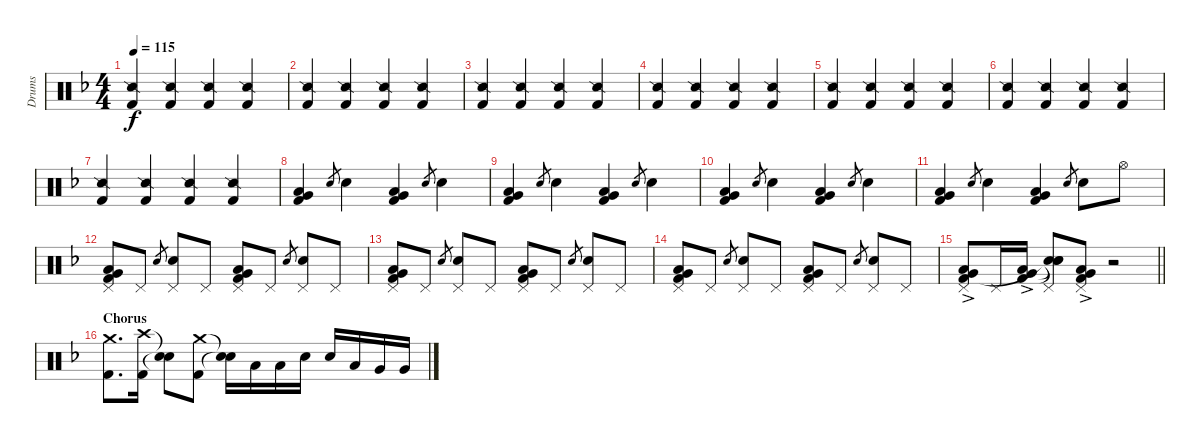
\track ("Drums" "Drums") {instrument percussion}
\staff {score}
\articulation defaults
\ts (4 4)
\tempo 115
\clef neutral
\ks dminor
("Snare (side stick) 2" "Kick (hit) 2").4{dy f} ("Snare (side stick) 2" "Kick (hit) 2").4 ("Snare (side stick) 2" "Kick (hit) 2").4 ("Snare (side stick) 2" "Kick (hit) 2").4 |
("Snare (side stick) 2" "Kick (hit) 2").4 ("Snare (side stick) 2" "Kick (hit) 2").4 ("Snare (side stick) 2" "Kick (hit) 2").4 ("Snare (side stick) 2" "Kick (hit) 2").4 |
("Snare (side stick) 2" "Kick (hit) 2").4 ("Snare (side stick) 2" "Kick (hit) 2").4 ("Snare (side stick) 2" "Kick (hit) 2").4 ("Snare (side stick) 2" "Kick (hit) 2").4 |
("Snare (side stick) 2" "Kick (hit) 2").4 ("Snare (side stick) 2" "Kick (hit) 2").4 ("Snare (side stick) 2" "Kick (hit) 2").4 ("Snare (side stick) 2" "Kick (hit) 2").4 |
("Snare (side stick) 2" "Kick (hit) 2").4 ("Snare (side stick) 2" "Kick (hit) 2").4 ("Snare (side stick) 2" "Kick (hit) 2").4 ("Snare (side stick) 2" "Kick (hit) 2").4 |
("Snare (side stick) 2" "Kick (hit) 2").4 ("Snare (side stick) 2" "Kick (hit) 2").4 ("Snare (side stick) 2" "Kick (hit) 2").4 ("Snare (side stick) 2" "Kick (hit) 2").4 |
("Snare (side stick) 2" "Kick (hit) 2").4 ("Snare (side stick) 2" "Kick (hit) 2").4 ("Snare (side stick) 2" "Kick (hit) 2").4 ("Snare (side stick) 2" "Kick (hit) 2").4 |
("Low Tom (hit)" "Very Low Tom (hit)" "Kick (hit) 2").4 "Electric Snare (hit)".8{gr} "Electric Snare (hit)".4 ("Low Tom (hit)" "Very Low Tom (hit)" "Kick (hit) 2").4 "Electric Snare (hit)".8{gr} "Electric Snare (hit)".4 |
("Low Tom (hit)" "Very Low Tom (hit)" "Kick (hit) 2").4 "Electric Snare (hit)".8{gr} "Electric Snare (hit)".4 ("Low Tom (hit)" "Very Low Tom (hit)" "Kick (hit) 2").4 "Electric Snare (hit)".8{gr} "Electric Snare (hit)".4 |
("Low Tom (hit)" "Very Low Tom (hit)" "Kick (hit) 2").4 "Electric Snare (hit)".8{gr} "Electric Snare (hit)".4 ("Low Tom (hit)" "Very Low Tom (hit)" "Kick (hit) 2").4 "Electric Snare (hit)".8{gr} "Electric Snare (hit)".4 |
("Low Tom (hit)" "Very Low Tom (hit)" "Kick (hit) 2").4 "Electric Snare (hit)".8{gr} "Electric Snare (hit)".4 ("Low Tom (hit)" "Very Low Tom (hit)" "Kick (hit) 2").4 "Electric Snare (hit)".8{gr} "Electric Snare (hit)".8 "Hi-Hat (open)".8 |
("Pedal Hi-Hat (hit)" "Low Tom (hit)" "Very Low Tom (hit)" "Kick (hit) 2").8 "Pedal Hi-Hat (hit)".8 "Electric Snare (hit)".8{gr} ("Pedal Hi-Hat (hit)" "Electric Snare (hit)").8 "Pedal Hi-Hat (hit)".8 ("Pedal Hi-Hat (hit)" "Low Tom (hit)" "Very Low Tom (hit)" "Kick (hit) 2").8 "Pedal Hi-Hat (hit)".8 "Electric Snare (hit)".8{gr} ("Pedal Hi-Hat (hit)" "Electric Snare (hit)").8 "Pedal Hi-Hat (hit)".8 |
("Pedal Hi-Hat (hit)" "Low Tom (hit)" "Very Low Tom (hit)" "Kick (hit) 2").8 "Pedal Hi-Hat (hit)".8 "Electric Snare (hit)".8{gr} ("Pedal Hi-Hat (hit)" "Electric Snare (hit)").8 "Pedal Hi-Hat (hit)".8 ("Pedal Hi-Hat (hit)" "Low Tom (hit)" "Very Low Tom (hit)" "Kick (hit) 2").8 "Pedal Hi-Hat (hit)".8 "Electric Snare (hit)".8{gr} ("Pedal Hi-Hat (hit)" "Electric Snare (hit)").8 "Pedal Hi-Hat (hit)".8 |
("Pedal Hi-Hat (hit)" "Low Tom (hit)" "Very Low Tom (hit)" "Kick (hit) 2").8 "Pedal Hi-Hat (hit)".8 "Electric Snare (hit)".8{gr} ("Pedal Hi-Hat (hit)" "Electric Snare (hit)").8 "Pedal Hi-Hat (hit)".8 ("Pedal Hi-Hat (hit)" "Low Tom (hit)" "Very Low Tom (hit)" "Kick (hit) 2").8 "Pedal Hi-Hat (hit)".8 "Electric Snare (hit)".8{gr} ("Pedal Hi-Hat (hit)" "Electric Snare (hit)").8 "Pedal Hi-Hat (hit)".8 |
\barLineRight lightlight
("Pedal Hi-Hat (hit)" "Low Tom (hit)"{ac} "Very Low Tom (hit)"{ac} "Kick (hit) 2"{ac}).8 "Pedal Hi-Hat (hit)".16 ("Low Tom (hit)"{ac} "Very Low Tom (hit)"{ac} "Kick (hit) 2"{ac}).16 ("Pedal Hi-Hat (hit)" "Snare (hit)"{t} "Snare (hit)"{t} "Snare (hit)"{t}).8 ("Pedal Hi-Hat (hit)" "Low Tom (hit)"{ac} "Very Low Tom (hit)"{ac} "Kick (hit) 2"{ac}).8 r.2 |
\section ("" "Chorus")
("Crash medium (hit)" "Kick (hit) 2").8{d} ("Crash high (hit)" "Kick (hit) 2").16 ("Snare (hit)"{t} "Snare (hit)"{t}).8 ("Crash medium (hit)" "Kick (hit) 2").8 ("Snare (hit)"{t} "Snare (hit)"{t}).16 "Low Tom (hit)".16 "Low Tom (hit)".16 "Electric Snare (hit)".16 "Electric Snare (hit)".16 "Low Tom (hit)".16 "Very Low Tom (hit)".16 "Very Low Tom (hit)".16
